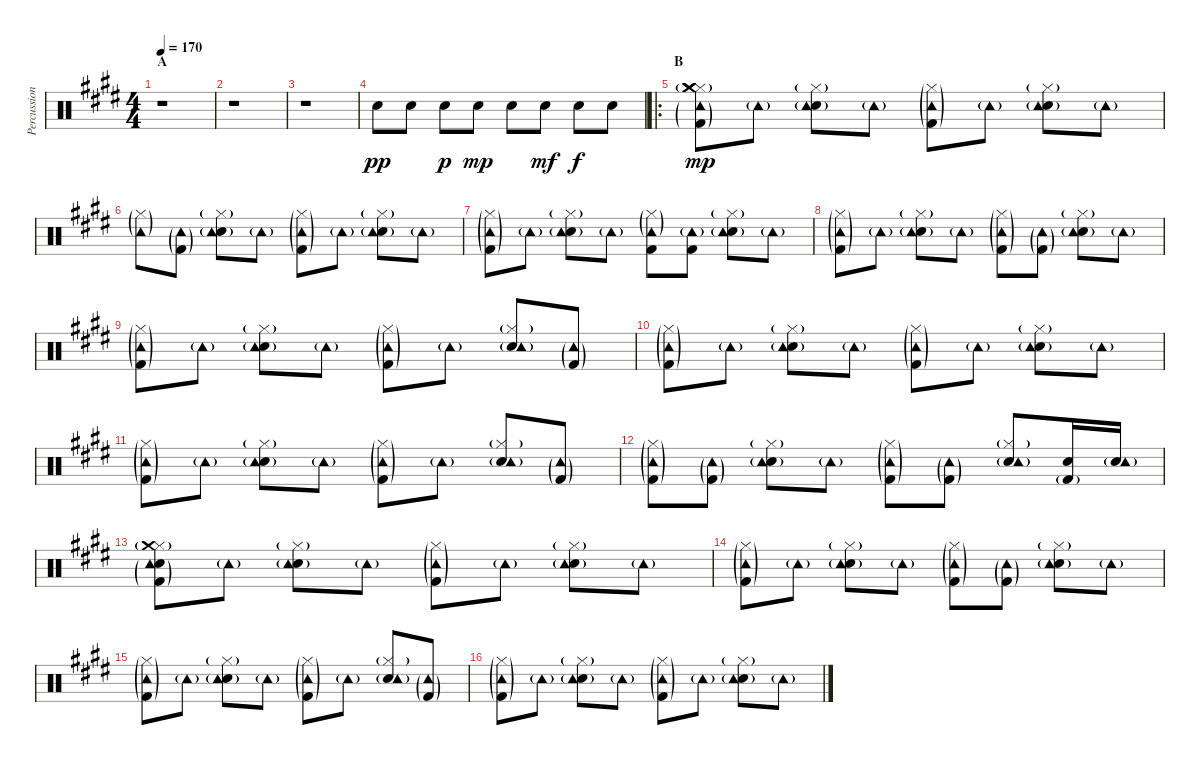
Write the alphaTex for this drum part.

\track ("Percussion" "Percussion") {instrument percussion}
\staff {score}
\articulation defaults
\ts (4 4)
\section ("" "A")
\tempo 170
\clef neutral
\ks e
r.1{dy pp} |
r.1 |
r.1 |
"Snare (hit) 2".8 "Snare (hit) 2".8 "Snare (hit) 2".8{dy p} "Snare (hit) 2".8{dy mp} "Snare (hit) 2".8 "Snare (hit) 2".8{dy mf} "Snare (hit) 2".8{dy f} "Snare (hit) 2".8 |
\ro
\section ("" "B")
("Hi-Hat (closed)"{g} "Crash medium (hit)" "Crash medium (hit)" "Kick (hit) 2"{g} "Tambourine (hit)"{g}).8{dy mp} "Tambourine (hit)"{g}.8 ("Hi-Hat (closed)"{g} "Snare (hit) 2" "Tambourine (hit)"{g}).8 "Tambourine (hit)"{g}.8 ("Hi-Hat (closed)"{g} "Kick (hit) 2"{g} "Tambourine (hit)"{g}).8 "Tambourine (hit)"{g}.8 ("Hi-Hat (closed)"{g} "Snare (hit) 2" "Tambourine (hit)"{g}).8 "Tambourine (hit)"{g}.8 |
("Hi-Hat (closed)"{g} "Tambourine (hit)"{g}).8 ("Kick (hit) 2"{g} "Tambourine (hit)"{g}).8 ("Hi-Hat (closed)"{g} "Snare (hit) 2" "Tambourine (hit)"{g}).8 "Tambourine (hit)"{g}.8 ("Hi-Hat (closed)"{g} "Kick (hit) 2"{g} "Tambourine (hit)"{g}).8 "Tambourine (hit)"{g}.8 ("Hi-Hat (closed)"{g} "Snare (hit) 2" "Tambourine (hit)"{g}).8 "Tambourine (hit)"{g}.8 |
("Hi-Hat (closed)"{g} "Kick (hit) 2"{g} "Tambourine (hit)"{g}).8 "Tambourine (hit)"{g}.8 ("Hi-Hat (closed)"{g} "Snare (hit) 2" "Tambourine (hit)"{g}).8 "Tambourine (hit)"{g}.8 ("Hi-Hat (closed)"{g} "Kick (hit) 2" "Tambourine (hit)"{g}).8 ("Kick (hit) 2" "Tambourine (hit)"{g}).8 ("Hi-Hat (closed)"{g} "Snare (hit) 2" "Tambourine (hit)"{g}).8 "Tambourine (hit)"{g}.8 |
("Hi-Hat (closed)"{g} "Kick (hit) 2"{g} "Tambourine (hit)"{g}).8 "Tambourine (hit)"{g}.8 ("Hi-Hat (closed)"{g} "Snare (hit) 2" "Tambourine (hit)"{g}).8 "Tambourine (hit)"{g}.8 ("Hi-Hat (closed)"{g} "Kick (hit) 2"{g} "Tambourine (hit)"{g}).8 ("Kick (hit) 2"{g} "Tambourine (hit)"{g}).8 ("Hi-Hat (closed)"{g} "Snare (hit) 2" "Tambourine (hit)"{g}).8 "Tambourine (hit)"{g}.8 |
("Hi-Hat (closed)"{g} "Kick (hit) 2"{g} "Tambourine (hit)"{g}).8 "Tambourine (hit)"{g}.8 ("Hi-Hat (closed)"{g} "Snare (hit) 2" "Tambourine (hit)"{g}).8 "Tambourine (hit)"{g}.8 ("Hi-Hat (closed)"{g} "Kick (hit) 2"{g} "Tambourine (hit)"{g}).8 "Tambourine (hit)"{g}.8 ("Hi-Hat (closed)"{g} "Snare (hit) 2" "Tambourine (hit)"{g}).8 ("Kick (hit) 2"{g} "Tambourine (hit)"{g}).8 |
("Hi-Hat (closed)"{g} "Kick (hit) 2"{g} "Tambourine (hit)"{g}).8 "Tambourine (hit)"{g}.8 ("Hi-Hat (closed)"{g} "Snare (hit) 2" "Tambourine (hit)"{g}).8 "Tambourine (hit)"{g}.8 ("Hi-Hat (closed)"{g} "Kick (hit) 2"{g} "Tambourine (hit)"{g}).8 "Tambourine (hit)"{g}.8 ("Hi-Hat (closed)"{g} "Snare (hit) 2" "Tambourine (hit)"{g}).8 "Tambourine (hit)"{g}.8 |
("Hi-Hat (closed)"{g} "Kick (hit) 2"{g} "Tambourine (hit)"{g}).8 "Tambourine (hit)"{g}.8 ("Hi-Hat (closed)"{g} "Snare (hit) 2" "Tambourine (hit)"{g}).8 "Tambourine (hit)"{g}.8 ("Hi-Hat (closed)"{g} "Kick (hit) 2"{g} "Tambourine (hit)"{g}).8 "Tambourine (hit)"{g}.8 ("Hi-Hat (closed)"{g} "Snare (hit) 2" "Tambourine (hit)"{g}).8 ("Kick (hit) 2"{g} "Tambourine (hit)"{g}).8 |
("Hi-Hat (closed)"{g} "Kick (hit) 2"{g} "Tambourine (hit)"{g}).8 ("Kick (hit) 2"{g} "Tambourine (hit)"{g}).8 ("Hi-Hat (closed)"{g} "Snare (hit) 2" "Tambourine (hit)"{g}).8 "Tambourine (hit)"{g}.8 ("Hi-Hat (closed)"{g} "Kick (hit) 2"{g} "Tambourine (hit)"{g}).8 ("Kick (hit) 2"{g} "Tambourine (hit)"{g}).8 ("Hi-Hat (closed)"{g} "Snare (hit) 2" "Tambourine (hit)"{g}).8 ("Snare (hit) 2" "Kick (hit) 2"{g}).16 ("Snare (hit) 2" "Tambourine (hit)"{g}).16 |
("Hi-Hat (closed)"{g} "Crash medium (hit)"{g} "Snare (hit) 2" "Tambourine (hit)"{g} "Kick (hit) 2"{g}).8 "Tambourine (hit)"{g}.8 ("Hi-Hat (closed)"{g} "Snare (hit) 2" "Tambourine (hit)"{g}).8 "Tambourine (hit)"{g}.8 ("Hi-Hat (closed)"{g} "Kick (hit) 2"{g} "Tambourine (hit)"{g}).8 "Tambourine (hit)"{g}.8 ("Hi-Hat (closed)"{g} "Snare (hit) 2" "Tambourine (hit)"{g}).8 "Tambourine (hit)"{g}.8 |
("Hi-Hat (closed)"{g} "Kick (hit) 2"{g} "Tambourine (hit)"{g}).8 "Tambourine (hit)"{g}.8 ("Hi-Hat (closed)"{g} "Snare (hit) 2" "Tambourine (hit)"{g}).8 "Tambourine (hit)"{g}.8 ("Hi-Hat (closed)"{g} "Kick (hit) 2"{g} "Tambourine (hit)"{g}).8 ("Kick (hit) 2"{g} "Tambourine (hit)"{g}).8 ("Hi-Hat (closed)"{g} "Snare (hit) 2" "Tambourine (hit)"{g}).8 "Tambourine (hit)"{g}.8 |
("Hi-Hat (closed)"{g} "Kick (hit) 2"{g} "Tambourine (hit)"{g}).8 "Tambourine (hit)"{g}.8 ("Hi-Hat (closed)"{g} "Snare (hit) 2" "Tambourine (hit)"{g}).8 "Tambourine (hit)"{g}.8 ("Hi-Hat (closed)"{g} "Kick (hit) 2"{g} "Tambourine (hit)"{g}).8 "Tambourine (hit)"{g}.8 ("Hi-Hat (closed)"{g} "Snare (hit) 2" "Tambourine (hit)"{g}).8 ("Kick (hit) 2"{g} "Tambourine (hit)"{g}).8 |
("Hi-Hat (closed)"{g} "Kick (hit) 2"{g} "Tambourine (hit)"{g}).8 "Tambourine (hit)"{g}.8 ("Hi-Hat (closed)"{g} "Snare (hit) 2" "Tambourine (hit)"{g}).8 "Tambourine (hit)"{g}.8 ("Hi-Hat (closed)"{g} "Kick (hit) 2"{g} "Tambourine (hit)"{g}).8 "Tambourine (hit)"{g}.8 ("Hi-Hat (closed)"{g} "Snare (hit) 2" "Tambourine (hit)"{g}).8 "Tambourine (hit)"{g}.8
